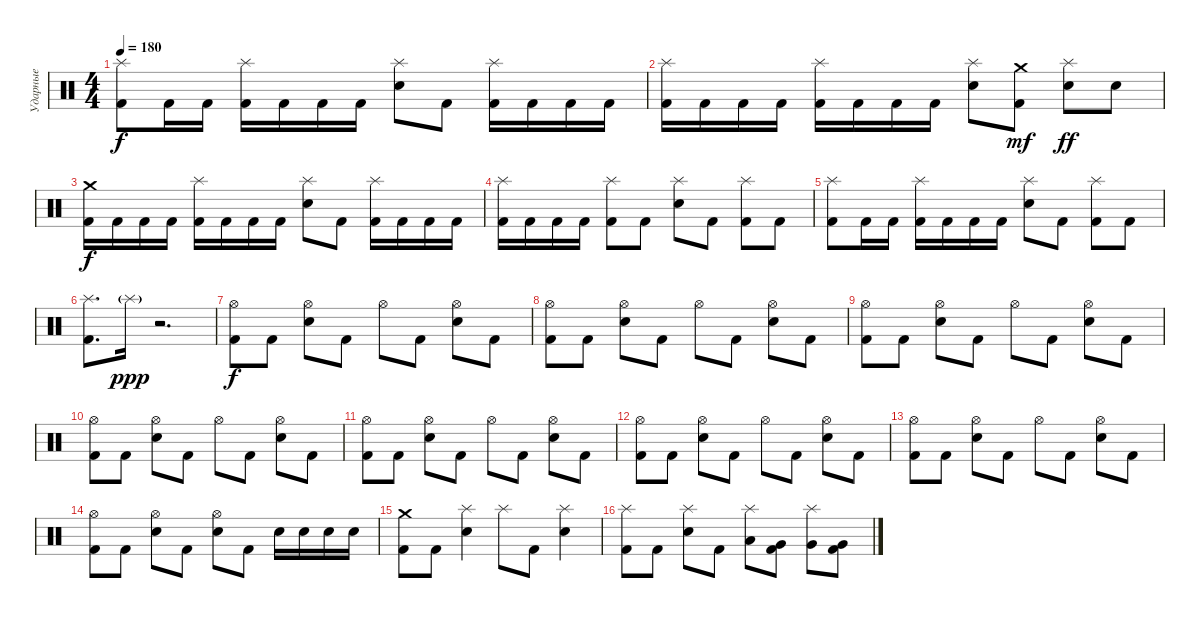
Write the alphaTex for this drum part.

\track ("Ударные" "Ударные") {instrument percussion bank 127}
\staff {score}
\articulation defaults
\ts (4 4)
\tempo 180
\clef neutral
\ks c
("Splash (hit)" "Kick (hit) 2").8{dy f} "Kick (hit) 2".16 "Kick (hit) 2".16 ("Splash (hit)" "Kick (hit) 2").16 "Kick (hit) 2".16 "Kick (hit) 2".16 "Kick (hit) 2".16 ("Splash (hit)" "Snare (hit) 2").8 "Kick (hit) 2".8 ("Splash (hit)" "Kick (hit) 2").16 "Kick (hit) 2".16 "Kick (hit) 2".16 "Kick (hit) 2".16 |
("Splash (hit)" "Kick (hit) 2").16 "Kick (hit) 2".16 "Kick (hit) 2".16 "Kick (hit) 2".16 ("Splash (hit)" "Kick (hit) 2").16 "Kick (hit) 2".16 "Kick (hit) 2".16 "Kick (hit) 2".16 ("Splash (hit)" "Snare (hit) 2").8 ("Crash medium (hit)" "Kick (hit) 2").8{dy mf} ("Splash (hit)" "Snare (hit) 2").8{dy ff} "Snare (hit) 2".8 |
("Crash medium (hit)" "Kick (hit) 2").16{dy f} "Kick (hit) 2".16 "Kick (hit) 2".16 "Kick (hit) 2".16 ("Splash (hit)" "Kick (hit) 2").16 "Kick (hit) 2".16 "Kick (hit) 2".16 "Kick (hit) 2".16 ("Splash (hit)" "Snare (hit) 2").8 "Kick (hit) 2".8 ("Splash (hit)" "Kick (hit) 2").16 "Kick (hit) 2".16 "Kick (hit) 2".16 "Kick (hit) 2".16 |
("Splash (hit)" "Kick (hit) 2").16 "Kick (hit) 2".16 "Kick (hit) 2".16 "Kick (hit) 2".16 ("Splash (hit)" "Kick (hit) 2").8 "Kick (hit) 2".8 ("Splash (hit)" "Snare (hit) 2").8 "Kick (hit) 2".8 ("Splash (hit)" "Kick (hit) 2").8 "Kick (hit) 2".8 |
("Splash (hit)" "Kick (hit) 2").8 "Kick (hit) 2".16 "Kick (hit) 2".16 ("Splash (hit)" "Kick (hit) 2").16 "Kick (hit) 2".16 "Kick (hit) 2".16 "Kick (hit) 2".16 ("Splash (hit)" "Snare (hit) 2").8 "Kick (hit) 2".8 ("Splash (hit)" "Kick (hit) 2").8 "Kick (hit) 2".8 |
("Splash (hit)" "Kick (hit) 2").8{d} "Splash (hit)"{g}.16{dy ppp} r.2{d} |
("Hi-Hat (open)" "Kick (hit) 2").8{dy f} "Kick (hit) 2".8 ("Hi-Hat (open)" "Snare (hit) 2").8 "Kick (hit) 2".8 "Hi-Hat (open)".8 "Kick (hit) 2".8 ("Hi-Hat (open)" "Snare (hit) 2").8 "Kick (hit) 2".8 |
("Hi-Hat (open)" "Kick (hit) 2").8 "Kick (hit) 2".8 ("Hi-Hat (open)" "Snare (hit) 2").8 "Kick (hit) 2".8 "Hi-Hat (open)".8 "Kick (hit) 2".8 ("Hi-Hat (open)" "Snare (hit) 2").8 "Kick (hit) 2".8 |
("Hi-Hat (open)" "Kick (hit) 2").8 "Kick (hit) 2".8 ("Hi-Hat (open)" "Snare (hit) 2").8 "Kick (hit) 2".8 "Hi-Hat (open)".8 "Kick (hit) 2".8 ("Hi-Hat (open)" "Snare (hit) 2").8 "Kick (hit) 2".8 |
("Hi-Hat (open)" "Kick (hit) 2").8 "Kick (hit) 2".8 ("Hi-Hat (open)" "Snare (hit) 2").8 "Kick (hit) 2".8 "Hi-Hat (open)".8 "Kick (hit) 2".8 ("Hi-Hat (open)" "Snare (hit) 2").8 "Kick (hit) 2".8 |
("Hi-Hat (open)" "Kick (hit) 2").8 "Kick (hit) 2".8 ("Hi-Hat (open)" "Snare (hit) 2").8 "Kick (hit) 2".8 "Hi-Hat (open)".8 "Kick (hit) 2".8 ("Hi-Hat (open)" "Snare (hit) 2").8 "Kick (hit) 2".8 |
("Hi-Hat (open)" "Kick (hit) 2").8 "Kick (hit) 2".8 ("Hi-Hat (open)" "Snare (hit) 2").8 "Kick (hit) 2".8 "Hi-Hat (open)".8 "Kick (hit) 2".8 ("Hi-Hat (open)" "Snare (hit) 2").8 "Kick (hit) 2".8 |
("Hi-Hat (open)" "Kick (hit) 2").8 "Kick (hit) 2".8 ("Hi-Hat (open)" "Snare (hit) 2").8 "Kick (hit) 2".8 "Hi-Hat (open)".8 "Kick (hit) 2".8 ("Hi-Hat (open)" "Snare (hit) 2").8 "Kick (hit) 2".8 |
("Hi-Hat (open)" "Kick (hit) 2").8 "Kick (hit) 2".8 ("Hi-Hat (open)" "Snare (hit) 2").8 "Kick (hit) 2".8 ("Hi-Hat (open)" "Snare (hit) 2").8 "Kick (hit) 2".8 "Snare (hit) 2".16 "Snare (hit) 2".16 "Snare (hit) 2".16 "Snare (hit) 2".16 |
("Crash medium (hit)" "Kick (hit) 2").8 "Kick (hit) 2".8 ("Splash (hit)" "Snare (hit) 2").4 "Splash (hit)".8 "Kick (hit) 2".8 ("Splash (hit)" "Snare (hit) 2").4 |
("Splash (hit)" "Kick (hit) 2").8 "Kick (hit) 2".8 ("Splash (hit)" "Snare (hit) 2").8 "Kick (hit) 2".8 ("Splash (hit)" "Low Tom (hit)").8 ("Very Low Tom (hit)" "Kick (hit) 2").8 ("Splash (hit)" "Very Low Tom (hit)").8 ("Very Low Tom (hit)" "Kick (hit) 2").8
